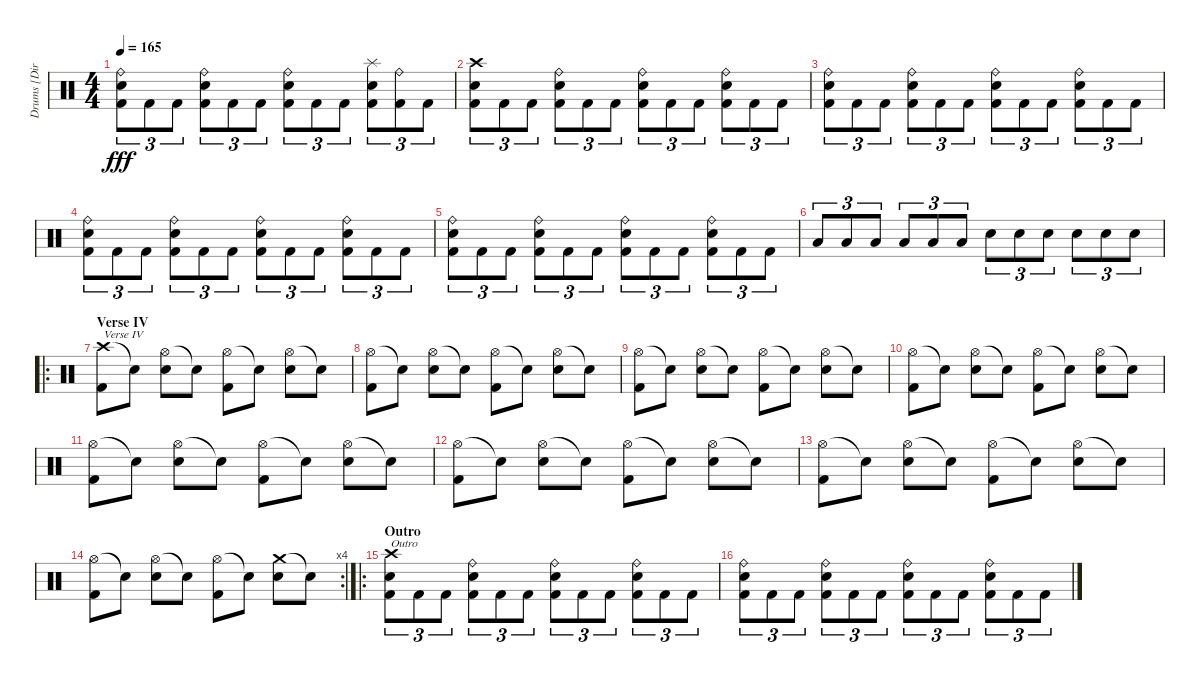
\track ("Drums [Dirge Rep]" "Drums [Dir") {instrument percussion}
\staff {score}
\articulation defaults
\ts (4 4)
\tempo 165
\clef neutral
\ks c
("Ride (bell)" "Electric Snare (hit)" "Kick (hit) 2").8{tu (3 2) dy fff} "Kick (hit) 2".8{tu (3 2)} "Kick (hit) 2".8{tu (3 2)} ("Ride (bell)" "Electric Snare (hit)" "Kick (hit) 2").8{tu (3 2)} "Kick (hit) 2".8{tu (3 2)} "Kick (hit) 2".8{tu (3 2)} ("Ride (bell)" "Electric Snare (hit)" "Kick (hit) 2").8{tu (3 2)} "Kick (hit) 2".8{tu (3 2)} "Kick (hit) 2".8{tu (3 2)} ("Splash (hit)" "Electric Snare (hit)" "Kick (hit) 2").8{tu (3 2)} ("Ride (bell)" "Kick (hit) 2").8{tu (3 2)} "Kick (hit) 2".8{tu (3 2)} |
("Crash high (hit)" "Electric Snare (hit)" "Kick (hit) 2").8{tu (3 2)} "Kick (hit) 2".8{tu (3 2)} "Kick (hit) 2".8{tu (3 2)} ("Ride (bell)" "Electric Snare (hit)" "Kick (hit) 2").8{tu (3 2)} "Kick (hit) 2".8{tu (3 2)} "Kick (hit) 2".8{tu (3 2)} ("Ride (bell)" "Electric Snare (hit)" "Kick (hit) 2").8{tu (3 2)} "Kick (hit) 2".8{tu (3 2)} "Kick (hit) 2".8{tu (3 2)} ("Ride (bell)" "Electric Snare (hit)" "Kick (hit) 2").8{tu (3 2)} "Kick (hit) 2".8{tu (3 2)} "Kick (hit) 2".8{tu (3 2)} |
("Ride (bell)" "Electric Snare (hit)" "Kick (hit) 2").8{tu (3 2)} "Kick (hit) 2".8{tu (3 2)} "Kick (hit) 2".8{tu (3 2)} ("Ride (bell)" "Electric Snare (hit)" "Kick (hit) 2").8{tu (3 2)} "Kick (hit) 2".8{tu (3 2)} "Kick (hit) 2".8{tu (3 2)} ("Ride (bell)" "Electric Snare (hit)" "Kick (hit) 2").8{tu (3 2)} "Kick (hit) 2".8{tu (3 2)} "Kick (hit) 2".8{tu (3 2)} ("Ride (bell)" "Electric Snare (hit)" "Kick (hit) 2").8{tu (3 2)} "Kick (hit) 2".8{tu (3 2)} "Kick (hit) 2".8{tu (3 2)} |
("Ride (bell)" "Electric Snare (hit)" "Kick (hit) 2").8{tu (3 2)} "Kick (hit) 2".8{tu (3 2)} "Kick (hit) 2".8{tu (3 2)} ("Ride (bell)" "Electric Snare (hit)" "Kick (hit) 2").8{tu (3 2)} "Kick (hit) 2".8{tu (3 2)} "Kick (hit) 2".8{tu (3 2)} ("Ride (bell)" "Electric Snare (hit)" "Kick (hit) 2").8{tu (3 2)} "Kick (hit) 2".8{tu (3 2)} "Kick (hit) 2".8{tu (3 2)} ("Ride (bell)" "Electric Snare (hit)" "Kick (hit) 2").8{tu (3 2)} "Kick (hit) 2".8{tu (3 2)} "Kick (hit) 2".8{tu (3 2)} |
("Ride (bell)" "Electric Snare (hit)" "Kick (hit) 2").8{tu (3 2)} "Kick (hit) 2".8{tu (3 2)} "Kick (hit) 2".8{tu (3 2)} ("Ride (bell)" "Electric Snare (hit)" "Kick (hit) 2").8{tu (3 2)} "Kick (hit) 2".8{tu (3 2)} "Kick (hit) 2".8{tu (3 2)} ("Ride (bell)" "Electric Snare (hit)" "Kick (hit) 2").8{tu (3 2)} "Kick (hit) 2".8{tu (3 2)} "Kick (hit) 2".8{tu (3 2)} ("Ride (bell)" "Electric Snare (hit)" "Kick (hit) 2").8{tu (3 2)} "Kick (hit) 2".8{tu (3 2)} "Kick (hit) 2".8{tu (3 2)} |
"Low Tom (hit)".8{tu (3 2)} "Low Tom (hit)".8{tu (3 2)} "Low Tom (hit)".8{tu (3 2)} "Low Tom (hit)".8{tu (3 2)} "Low Tom (hit)".8{tu (3 2)} "Low Tom (hit)".8{tu (3 2)} "Electric Snare (hit)".8{tu (3 2)} "Electric Snare (hit)".8{tu (3 2)} "Electric Snare (hit)".8{tu (3 2)} "Electric Snare (hit)".8{tu (3 2)} "Electric Snare (hit)".8{tu (3 2)} "Electric Snare (hit)".8{tu (3 2)} |
\ro
\section ("" "Verse IV")
("Crash high (hit)" "Kick (hit) 2").8{txt "Verse IV"} "Snare (hit)"{t}.8 ("Hi-Hat (open)" "Electric Snare (hit)").8 "Snare (hit)"{t}.8 ("Hi-Hat (open)" "Kick (hit) 2").8 "Snare (hit)"{t}.8 ("Hi-Hat (open)" "Electric Snare (hit)").8 "Snare (hit)"{t}.8 |
("Hi-Hat (open)" "Kick (hit) 2").8 "Snare (hit)"{t}.8 ("Hi-Hat (open)" "Electric Snare (hit)").8 "Snare (hit)"{t}.8 ("Hi-Hat (open)" "Kick (hit) 2").8 "Snare (hit)"{t}.8 ("Hi-Hat (open)" "Electric Snare (hit)").8 "Snare (hit)"{t}.8 |
("Hi-Hat (open)" "Kick (hit) 2").8 "Snare (hit)"{t}.8 ("Hi-Hat (open)" "Electric Snare (hit)").8 "Snare (hit)"{t}.8 ("Hi-Hat (open)" "Kick (hit) 2").8 "Snare (hit)"{t}.8 ("Hi-Hat (open)" "Electric Snare (hit)").8 "Snare (hit)"{t}.8 |
("Hi-Hat (open)" "Kick (hit) 2").8 "Snare (hit)"{t}.8 ("Hi-Hat (open)" "Electric Snare (hit)").8 "Snare (hit)"{t}.8 ("Hi-Hat (open)" "Kick (hit) 2").8 "Snare (hit)"{t}.8 ("Hi-Hat (open)" "Electric Snare (hit)").8 "Snare (hit)"{t}.8 |
("Hi-Hat (open)" "Kick (hit) 2").8 "Snare (hit)"{t}.8 ("Hi-Hat (open)" "Electric Snare (hit)").8 "Snare (hit)"{t}.8 ("Hi-Hat (open)" "Kick (hit) 2").8 "Snare (hit)"{t}.8 ("Hi-Hat (open)" "Electric Snare (hit)").8 "Snare (hit)"{t}.8 |
("Hi-Hat (open)" "Kick (hit) 2").8 "Snare (hit)"{t}.8 ("Hi-Hat (open)" "Electric Snare (hit)").8 "Snare (hit)"{t}.8 ("Hi-Hat (open)" "Kick (hit) 2").8 "Snare (hit)"{t}.8 ("Hi-Hat (open)" "Electric Snare (hit)").8 "Snare (hit)"{t}.8 |
("Hi-Hat (open)" "Kick (hit) 2").8 "Snare (hit)"{t}.8 ("Hi-Hat (open)" "Electric Snare (hit)").8 "Snare (hit)"{t}.8 ("Hi-Hat (open)" "Kick (hit) 2").8 "Snare (hit)"{t}.8 ("Hi-Hat (open)" "Electric Snare (hit)").8 "Snare (hit)"{t}.8 |
\rc 4
("Hi-Hat (open)" "Kick (hit) 2").8 "Snare (hit)"{t}.8 ("Hi-Hat (open)" "Electric Snare (hit)").8 "Snare (hit)"{t}.8 ("Hi-Hat (open)" "Kick (hit) 2").8 "Snare (hit)"{t}.8 ("Crash medium (hit)" "Electric Snare (hit)").8 "Snare (hit)"{t}.8 |
\ro
\section ("" "Outro")
("Crash high (hit)" "Electric Snare (hit)" "Kick (hit) 2").8{tu (3 2) txt "Outro"} "Kick (hit) 2".8{tu (3 2)} "Kick (hit) 2".8{tu (3 2)} ("Ride (bell)" "Electric Snare (hit)" "Kick (hit) 2").8{tu (3 2)} "Kick (hit) 2".8{tu (3 2)} "Kick (hit) 2".8{tu (3 2)} ("Ride (bell)" "Electric Snare (hit)" "Kick (hit) 2").8{tu (3 2)} "Kick (hit) 2".8{tu (3 2)} "Kick (hit) 2".8{tu (3 2)} ("Ride (bell)" "Electric Snare (hit)" "Kick (hit) 2").8{tu (3 2)} "Kick (hit) 2".8{tu (3 2)} "Kick (hit) 2".8{tu (3 2)} |
("Ride (bell)" "Electric Snare (hit)" "Kick (hit) 2").8{tu (3 2)} "Kick (hit) 2".8{tu (3 2)} "Kick (hit) 2".8{tu (3 2)} ("Ride (bell)" "Electric Snare (hit)" "Kick (hit) 2").8{tu (3 2)} "Kick (hit) 2".8{tu (3 2)} "Kick (hit) 2".8{tu (3 2)} ("Ride (bell)" "Electric Snare (hit)" "Kick (hit) 2").8{tu (3 2)} "Kick (hit) 2".8{tu (3 2)} "Kick (hit) 2".8{tu (3 2)} ("Ride (bell)" "Electric Snare (hit)" "Kick (hit) 2").8{tu (3 2)} "Kick (hit) 2".8{tu (3 2)} "Kick (hit) 2".8{tu (3 2)}
